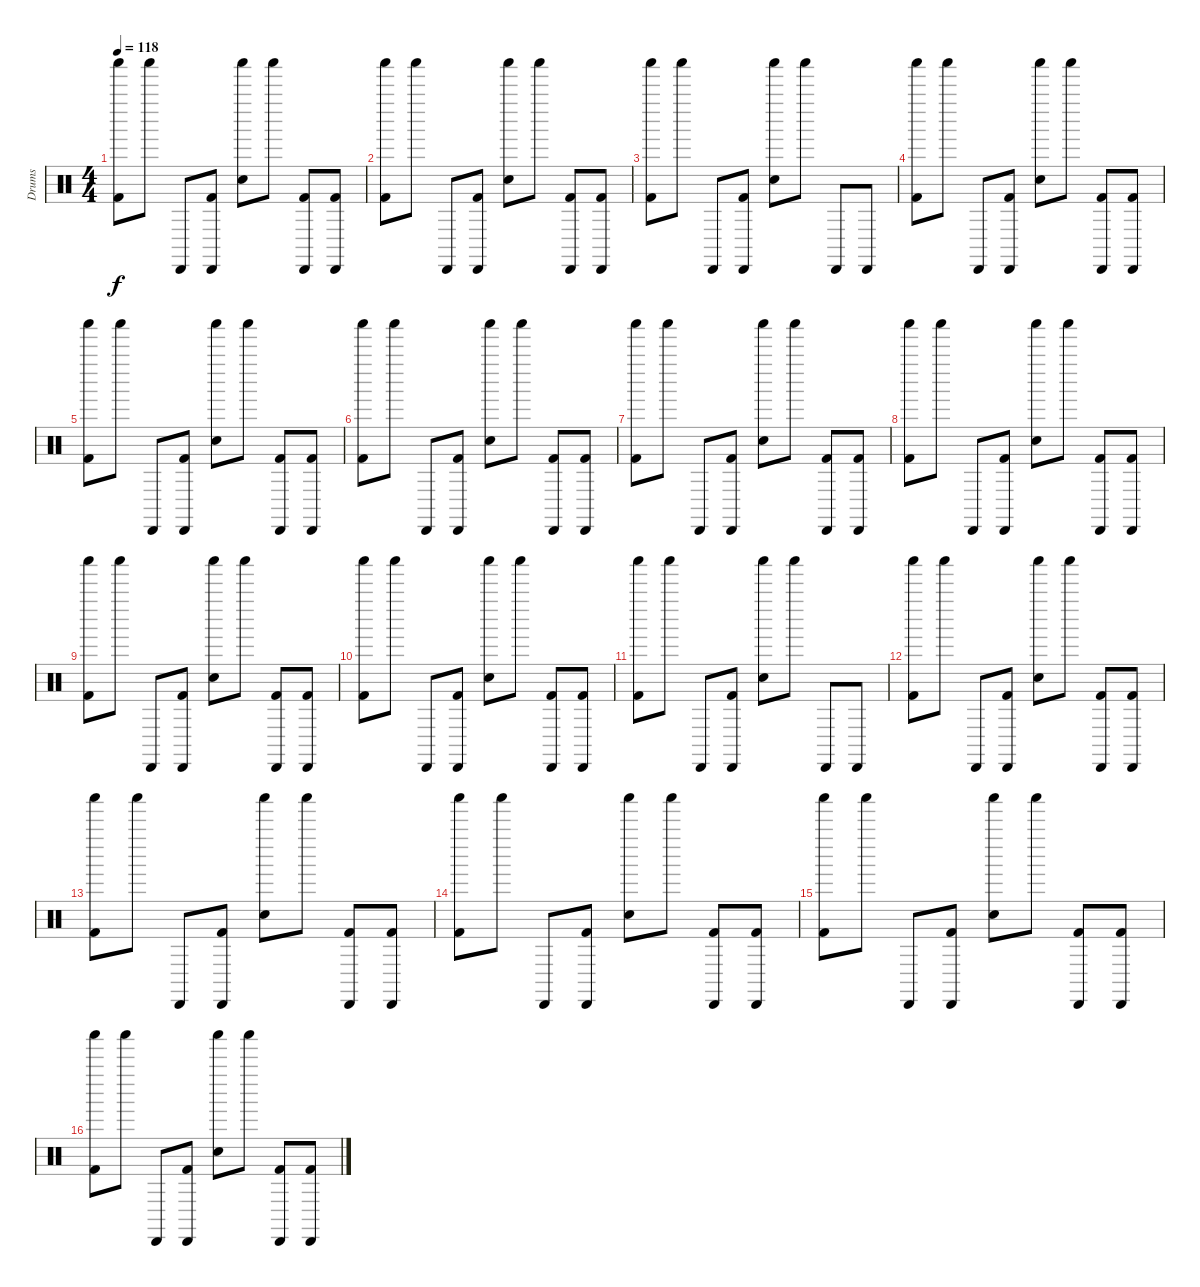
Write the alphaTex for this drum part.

\track ("Drums" "Drums") {instrument percussion}
\staff {score}
\articulation defaults
\ts (4 4)
\tempo 118
\clef neutral
\ks c
("Shaker (hit)" "Kick (hit) 2").8{dy f} "Shaker (hit)".8 "Cabasa (hit)".8 ("Cabasa (hit)" "Kick (hit) 2").8 ("Shaker (hit)" "Electric Snare (hit)").8 "Shaker (hit)".8 ("Cabasa (hit)" "Kick (hit) 2").8 ("Cabasa (hit)" "Kick (hit) 2").8 |
("Shaker (hit)" "Kick (hit) 2").8 "Shaker (hit)".8 "Cabasa (hit)".8 ("Cabasa (hit)" "Kick (hit) 2").8 ("Shaker (hit)" "Electric Snare (hit)").8 "Shaker (hit)".8 ("Cabasa (hit)" "Kick (hit) 2").8 ("Cabasa (hit)" "Kick (hit) 2").8 |
("Shaker (hit)" "Kick (hit) 2").8 "Shaker (hit)".8 "Cabasa (hit)".8 ("Cabasa (hit)" "Kick (hit) 2").8 ("Shaker (hit)" "Electric Snare (hit)").8 "Shaker (hit)".8 "Cabasa (hit)".8 "Cabasa (hit)".8 |
("Shaker (hit)" "Kick (hit) 2").8 "Shaker (hit)".8 "Cabasa (hit)".8 ("Cabasa (hit)" "Kick (hit) 2").8 ("Shaker (hit)" "Electric Snare (hit)").8 "Shaker (hit)".8 ("Cabasa (hit)" "Kick (hit) 2").8 ("Cabasa (hit)" "Kick (hit) 2").8 |
("Shaker (hit)" "Kick (hit) 2").8 "Shaker (hit)".8 "Cabasa (hit)".8 ("Cabasa (hit)" "Kick (hit) 2").8 ("Shaker (hit)" "Electric Snare (hit)").8 "Shaker (hit)".8 ("Cabasa (hit)" "Kick (hit) 2").8 ("Cabasa (hit)" "Kick (hit) 2").8 |
("Shaker (hit)" "Kick (hit) 2").8 "Shaker (hit)".8 "Cabasa (hit)".8 ("Cabasa (hit)" "Kick (hit) 2").8 ("Shaker (hit)" "Electric Snare (hit)").8 "Shaker (hit)".8 ("Cabasa (hit)" "Kick (hit) 2").8 ("Cabasa (hit)" "Kick (hit) 2").8 |
("Shaker (hit)" "Kick (hit) 2").8 "Shaker (hit)".8 "Cabasa (hit)".8 ("Cabasa (hit)" "Kick (hit) 2").8 ("Shaker (hit)" "Electric Snare (hit)").8 "Shaker (hit)".8 ("Cabasa (hit)" "Kick (hit) 2").8 ("Cabasa (hit)" "Kick (hit) 2").8 |
("Shaker (hit)" "Kick (hit) 2").8 "Shaker (hit)".8 "Cabasa (hit)".8 ("Cabasa (hit)" "Kick (hit) 2").8 ("Shaker (hit)" "Electric Snare (hit)").8 "Shaker (hit)".8 ("Cabasa (hit)" "Kick (hit) 2").8 ("Cabasa (hit)" "Kick (hit) 2").8 |
("Shaker (hit)" "Kick (hit) 2").8 "Shaker (hit)".8 "Cabasa (hit)".8 ("Cabasa (hit)" "Kick (hit) 2").8 ("Shaker (hit)" "Electric Snare (hit)").8 "Shaker (hit)".8 ("Cabasa (hit)" "Kick (hit) 2").8 ("Cabasa (hit)" "Kick (hit) 2").8 |
("Shaker (hit)" "Kick (hit) 2").8 "Shaker (hit)".8 "Cabasa (hit)".8 ("Cabasa (hit)" "Kick (hit) 2").8 ("Shaker (hit)" "Electric Snare (hit)").8 "Shaker (hit)".8 ("Cabasa (hit)" "Kick (hit) 2").8 ("Cabasa (hit)" "Kick (hit) 2").8 |
("Shaker (hit)" "Kick (hit) 2").8 "Shaker (hit)".8 "Cabasa (hit)".8 ("Cabasa (hit)" "Kick (hit) 2").8 ("Shaker (hit)" "Electric Snare (hit)").8 "Shaker (hit)".8 "Cabasa (hit)".8 "Cabasa (hit)".8 |
("Shaker (hit)" "Kick (hit) 2").8 "Shaker (hit)".8 "Cabasa (hit)".8 ("Cabasa (hit)" "Kick (hit) 2").8 ("Shaker (hit)" "Electric Snare (hit)").8 "Shaker (hit)".8 ("Cabasa (hit)" "Kick (hit) 2").8 ("Cabasa (hit)" "Kick (hit) 2").8 |
("Shaker (hit)" "Kick (hit) 2").8 "Shaker (hit)".8 "Cabasa (hit)".8 ("Cabasa (hit)" "Kick (hit) 2").8 ("Shaker (hit)" "Electric Snare (hit)").8 "Shaker (hit)".8 ("Cabasa (hit)" "Kick (hit) 2").8 ("Cabasa (hit)" "Kick (hit) 2").8 |
("Shaker (hit)" "Kick (hit) 2").8 "Shaker (hit)".8 "Cabasa (hit)".8 ("Cabasa (hit)" "Kick (hit) 2").8 ("Shaker (hit)" "Electric Snare (hit)").8 "Shaker (hit)".8 ("Cabasa (hit)" "Kick (hit) 2").8 ("Cabasa (hit)" "Kick (hit) 2").8 |
("Shaker (hit)" "Kick (hit) 2").8 "Shaker (hit)".8 "Cabasa (hit)".8 ("Cabasa (hit)" "Kick (hit) 2").8 ("Shaker (hit)" "Electric Snare (hit)").8 "Shaker (hit)".8 ("Cabasa (hit)" "Kick (hit) 2").8 ("Cabasa (hit)" "Kick (hit) 2").8 |
("Shaker (hit)" "Kick (hit) 2").8 "Shaker (hit)".8 "Cabasa (hit)".8 ("Cabasa (hit)" "Kick (hit) 2").8 ("Shaker (hit)" "Electric Snare (hit)").8 "Shaker (hit)".8 ("Cabasa (hit)" "Kick (hit) 2").8 ("Cabasa (hit)" "Kick (hit) 2").8
